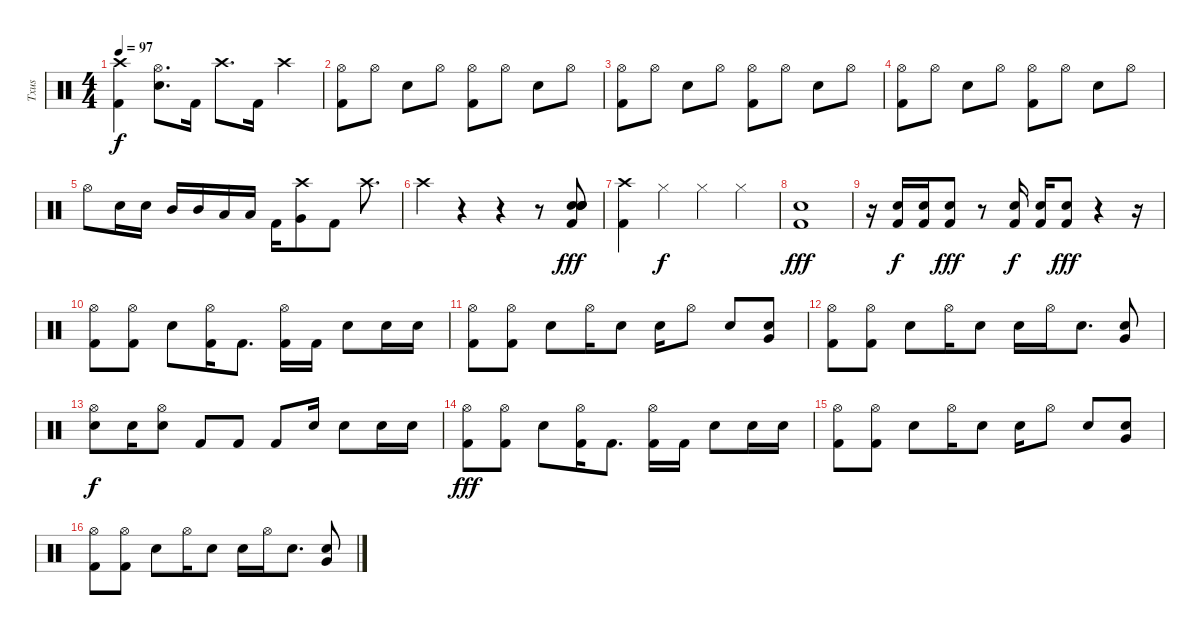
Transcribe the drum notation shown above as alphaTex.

\track ("Txus" "Txus") {instrument percussion}
\staff {score}
\articulation defaults
\ts (4 4)
\tempo 97
\clef neutral
\ks c
("Crash high (hit)" "Kick (hit) 2").4{dy f} ("Hi-Hat (open)" "Snare (hit) 2").8{d} "Kick (hit) 2".16 "Crash high (hit)".8{d} "Kick (hit) 2".16 "Crash high (hit)".4 |
("Hi-Hat (open)" "Kick (hit) 2").8 "Hi-Hat (open)".8 "Snare (hit) 2".8 "Hi-Hat (open)".8 ("Hi-Hat (open)" "Kick (hit) 2").8 "Hi-Hat (open)".8 "Snare (hit) 2".8 "Hi-Hat (open)".8 |
("Hi-Hat (open)" "Kick (hit) 2").8 "Hi-Hat (open)".8 "Snare (hit) 2".8 "Hi-Hat (open)".8 ("Hi-Hat (open)" "Kick (hit) 2").8 "Hi-Hat (open)".8 "Snare (hit) 2".8 "Hi-Hat (open)".8 |
("Hi-Hat (open)" "Kick (hit) 2").8 "Hi-Hat (open)".8 "Snare (hit) 2".8 "Hi-Hat (open)".8 ("Hi-Hat (open)" "Kick (hit) 2").8 "Hi-Hat (open)".8 "Snare (hit) 2".8 "Hi-Hat (open)".8 |
"Hi-Hat (open)".8 "Snare (hit) 2".16 "Snare (hit) 2".16 "Mid Tom (hit)".16 "Mid Tom (hit)".16 "Low Tom (hit)".16 "Low Tom (hit)".16 "Kick (hit) 2".16 ("Crash high (hit)" "Very Low Tom (hit)").8 "Kick (hit) 2".8 "Crash high (hit)".8{d} |
"Crash high (hit)".4 r.4 r.4 r.8 ("Snare (hit) 2" "Snare (hit) 2" "Snare (hit) 2" "Snare (hit) 2" "Kick (hit) 2").8{dy fff} |
("Crash high (hit)" "Kick (hit) 2").4 "Hi-Hat (closed)".4{dy f} "Hi-Hat (closed)".4 "Hi-Hat (closed)".4 |
("Snare (hit) 2" "Kick (hit) 2").1{dy fff} |
r.16 ("Snare (hit) 2" "Kick (hit) 2").16{dy f} ("Snare (hit) 2" "Kick (hit) 2").16 ("Snare (hit) 2" "Kick (hit) 2").8{dy fff} r.8 ("Snare (hit) 2" "Kick (hit) 2").16{dy f} ("Snare (hit) 2" "Kick (hit) 2").16 ("Snare (hit) 2" "Kick (hit) 2").8{dy fff} r.4 r.16 |
("Hi-Hat (open)" "Kick (hit) 2").8 ("Hi-Hat (open)" "Kick (hit) 2").8 "Snare (hit) 2".8 ("Hi-Hat (open)" "Kick (hit) 2").16 "Kick (hit) 2".8{d} ("Hi-Hat (open)" "Kick (hit) 2").16 "Kick (hit) 2".16 "Snare (hit) 2".8 "Snare (hit) 2".16 "Snare (hit) 2".16 |
("Hi-Hat (open)" "Kick (hit) 2").8 ("Hi-Hat (open)" "Kick (hit) 2").8 "Snare (hit) 2".8 "Hi-Hat (open)".16 "Snare (hit) 2".8 "Snare (hit) 2".16 "Hi-Hat (open)".8 "Snare (hit) 2".8 ("Very Low Tom (hit)" "Snare (hit) 2").8 |
("Hi-Hat (open)" "Kick (hit) 2").8 ("Hi-Hat (open)" "Kick (hit) 2").8 "Snare (hit) 2".8 "Hi-Hat (open)".16 "Snare (hit) 2".8 "Snare (hit) 2".16 "Hi-Hat (open)".16 "Snare (hit) 2".8{d} ("Very Low Tom (hit)" "Snare (hit) 2").8 |
("Hi-Hat (open)" "Snare (hit) 2").8{dy f} "Snare (hit) 2".16 ("Hi-Hat (open)" "Snare (hit) 2").8 "Kick (hit) 2".8 "Kick (hit) 2".8 "Kick (hit) 2".8 "Snare (hit) 2".16 "Snare (hit) 2".8 "Snare (hit) 2".16 "Snare (hit) 2".16 |
("Hi-Hat (open)" "Kick (hit) 2").8{dy fff} ("Hi-Hat (open)" "Kick (hit) 2").8 "Snare (hit) 2".8 ("Hi-Hat (open)" "Kick (hit) 2").16 "Kick (hit) 2".8{d} ("Hi-Hat (open)" "Kick (hit) 2").16 "Kick (hit) 2".16 "Snare (hit) 2".8 "Snare (hit) 2".16 "Snare (hit) 2".16 |
("Hi-Hat (open)" "Kick (hit) 2").8 ("Hi-Hat (open)" "Kick (hit) 2").8 "Snare (hit) 2".8 "Hi-Hat (open)".16 "Snare (hit) 2".8 "Snare (hit) 2".16 "Hi-Hat (open)".8 "Snare (hit) 2".8 ("Very Low Tom (hit)" "Snare (hit) 2").8 |
("Hi-Hat (open)" "Kick (hit) 2").8 ("Hi-Hat (open)" "Kick (hit) 2").8 "Snare (hit) 2".8 "Hi-Hat (open)".16 "Snare (hit) 2".8 "Snare (hit) 2".16 "Hi-Hat (open)".16 "Snare (hit) 2".8{d} ("Very Low Tom (hit)" "Snare (hit) 2").8
